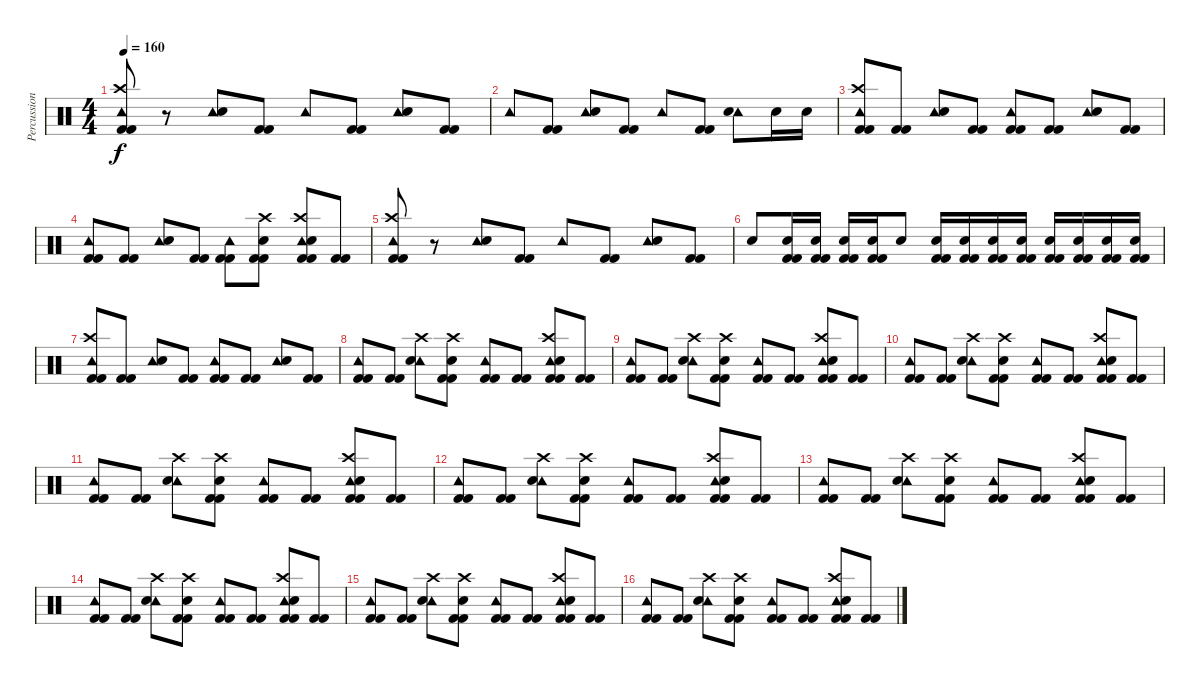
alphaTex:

\track ("Percussion" "Percussion") {instrument percussion}
\staff {score}
\articulation defaults
\ts (4 4)
\tempo 160
\clef neutral
\ks c
("Tambourine (hit)" "Crash high (hit)" "Kick (hit) 2" "Kick (hit) 2").8{dy f} r.8 ("Tambourine (hit)" "Electric Snare (hit)").8 ("Kick (hit) 2" "Kick (hit) 2").8 "Tambourine (hit)".8 ("Kick (hit) 2" "Kick (hit) 2").8 ("Tambourine (hit)" "Electric Snare (hit)").8 ("Kick (hit) 2" "Kick (hit) 2").8 |
"Tambourine (hit)".8 ("Kick (hit) 2" "Kick (hit) 2").8 ("Tambourine (hit)" "Electric Snare (hit)").8 ("Kick (hit) 2" "Kick (hit) 2").8 "Tambourine (hit)".8 ("Kick (hit) 2" "Kick (hit) 2").8 ("Tambourine (hit)" "Electric Snare (hit)").8 "Snare (hit) 2".16 "Snare (hit) 2".16 |
("Tambourine (hit)" "Crash high (hit)" "Kick (hit) 2" "Kick (hit) 2").8 ("Kick (hit) 2" "Kick (hit) 2").8 ("Tambourine (hit)" "Electric Snare (hit)").8 ("Kick (hit) 2" "Kick (hit) 2").8 ("Tambourine (hit)" "Kick (hit) 2" "Kick (hit) 2").8 ("Kick (hit) 2" "Kick (hit) 2").8 ("Tambourine (hit)" "Electric Snare (hit)").8 ("Kick (hit) 2" "Kick (hit) 2").8 |
("Tambourine (hit)" "Kick (hit) 2" "Kick (hit) 2").8 ("Kick (hit) 2" "Kick (hit) 2").8 ("Tambourine (hit)" "Electric Snare (hit)").8 ("Kick (hit) 2" "Kick (hit) 2").8 ("Tambourine (hit)" "Kick (hit) 2" "Kick (hit) 2").8 ("Crash high (hit)" "Electric Snare (hit)" "Kick (hit) 2" "Kick (hit) 2").8 ("Tambourine (hit)" "Crash high (hit)" "Electric Snare (hit)" "Kick (hit) 2" "Kick (hit) 2").8 ("Kick (hit) 2" "Kick (hit) 2").8 |
("Tambourine (hit)" "Crash high (hit)" "Kick (hit) 2" "Kick (hit) 2").8 r.8 ("Tambourine (hit)" "Electric Snare (hit)").8 ("Kick (hit) 2" "Kick (hit) 2").8 "Tambourine (hit)".8 ("Kick (hit) 2" "Kick (hit) 2").8 ("Tambourine (hit)" "Electric Snare (hit)").8 ("Kick (hit) 2" "Kick (hit) 2").8 |
"Electric Snare (hit)".8 ("Electric Snare (hit)" "Kick (hit) 2" "Kick (hit) 2").16 ("Electric Snare (hit)" "Kick (hit) 2" "Kick (hit) 2").16 ("Electric Snare (hit)" "Kick (hit) 2" "Kick (hit) 2").16 ("Electric Snare (hit)" "Kick (hit) 2" "Kick (hit) 2").16 "Electric Snare (hit)".8 ("Electric Snare (hit)" "Kick (hit) 2" "Kick (hit) 2").16 ("Electric Snare (hit)" "Kick (hit) 2" "Kick (hit) 2").16 ("Electric Snare (hit)" "Kick (hit) 2" "Kick (hit) 2").16 ("Electric Snare (hit)" "Kick (hit) 2" "Kick (hit) 2").16 ("Electric Snare (hit)" "Kick (hit) 2" "Kick (hit) 2").16 ("Electric Snare (hit)" "Kick (hit) 2" "Kick (hit) 2").16 ("Electric Snare (hit)" "Kick (hit) 2" "Kick (hit) 2").16 ("Electric Snare (hit)" "Kick (hit) 2" "Kick (hit) 2").16 |
("Tambourine (hit)" "Crash high (hit)" "Kick (hit) 2" "Kick (hit) 2").8 ("Kick (hit) 2" "Kick (hit) 2").8 ("Tambourine (hit)" "Electric Snare (hit)").8 ("Kick (hit) 2" "Kick (hit) 2").8 ("Tambourine (hit)" "Kick (hit) 2" "Kick (hit) 2").8 ("Kick (hit) 2" "Kick (hit) 2").8 ("Tambourine (hit)" "Electric Snare (hit)").8 ("Kick (hit) 2" "Kick (hit) 2").8 |
("Tambourine (hit)" "Kick (hit) 2" "Kick (hit) 2").8 ("Kick (hit) 2" "Kick (hit) 2").8 ("Tambourine (hit)" "Crash high (hit)" "Electric Snare (hit)").8 ("Crash high (hit)" "Electric Snare (hit)" "Kick (hit) 2" "Kick (hit) 2").8 ("Tambourine (hit)" "Kick (hit) 2" "Kick (hit) 2").8 ("Kick (hit) 2" "Kick (hit) 2").8 ("Tambourine (hit)" "Crash high (hit)" "Electric Snare (hit)" "Kick (hit) 2" "Kick (hit) 2").8 ("Kick (hit) 2" "Kick (hit) 2").8 |
("Tambourine (hit)" "Kick (hit) 2" "Kick (hit) 2").8 ("Kick (hit) 2" "Kick (hit) 2").8 ("Tambourine (hit)" "Crash high (hit)" "Electric Snare (hit)").8 ("Crash high (hit)" "Electric Snare (hit)" "Kick (hit) 2" "Kick (hit) 2").8 ("Tambourine (hit)" "Kick (hit) 2" "Kick (hit) 2").8 ("Kick (hit) 2" "Kick (hit) 2").8 ("Tambourine (hit)" "Crash high (hit)" "Electric Snare (hit)" "Kick (hit) 2" "Kick (hit) 2").8 ("Kick (hit) 2" "Kick (hit) 2").8 |
("Tambourine (hit)" "Kick (hit) 2" "Kick (hit) 2").8 ("Kick (hit) 2" "Kick (hit) 2").8 ("Tambourine (hit)" "Crash high (hit)" "Electric Snare (hit)").8 ("Crash high (hit)" "Electric Snare (hit)" "Kick (hit) 2" "Kick (hit) 2").8 ("Tambourine (hit)" "Kick (hit) 2" "Kick (hit) 2").8 ("Kick (hit) 2" "Kick (hit) 2").8 ("Tambourine (hit)" "Crash high (hit)" "Electric Snare (hit)" "Kick (hit) 2" "Kick (hit) 2").8 ("Kick (hit) 2" "Kick (hit) 2").8 |
("Tambourine (hit)" "Kick (hit) 2" "Kick (hit) 2").8 ("Kick (hit) 2" "Kick (hit) 2").8 ("Tambourine (hit)" "Crash high (hit)" "Electric Snare (hit)").8 ("Crash high (hit)" "Electric Snare (hit)" "Kick (hit) 2" "Kick (hit) 2").8 ("Tambourine (hit)" "Kick (hit) 2" "Kick (hit) 2").8 ("Kick (hit) 2" "Kick (hit) 2").8 ("Tambourine (hit)" "Crash high (hit)" "Electric Snare (hit)" "Kick (hit) 2" "Kick (hit) 2").8 ("Kick (hit) 2" "Kick (hit) 2").8 |
("Tambourine (hit)" "Kick (hit) 2" "Kick (hit) 2").8 ("Kick (hit) 2" "Kick (hit) 2").8 ("Tambourine (hit)" "Crash high (hit)" "Electric Snare (hit)").8 ("Crash high (hit)" "Electric Snare (hit)" "Kick (hit) 2" "Kick (hit) 2").8 ("Tambourine (hit)" "Kick (hit) 2" "Kick (hit) 2").8 ("Kick (hit) 2" "Kick (hit) 2").8 ("Tambourine (hit)" "Crash high (hit)" "Electric Snare (hit)" "Kick (hit) 2" "Kick (hit) 2").8 ("Kick (hit) 2" "Kick (hit) 2").8 |
("Tambourine (hit)" "Kick (hit) 2" "Kick (hit) 2").8 ("Kick (hit) 2" "Kick (hit) 2").8 ("Tambourine (hit)" "Crash high (hit)" "Electric Snare (hit)").8 ("Crash high (hit)" "Electric Snare (hit)" "Kick (hit) 2" "Kick (hit) 2").8 ("Tambourine (hit)" "Kick (hit) 2" "Kick (hit) 2").8 ("Kick (hit) 2" "Kick (hit) 2").8 ("Tambourine (hit)" "Crash high (hit)" "Electric Snare (hit)" "Kick (hit) 2" "Kick (hit) 2").8 ("Kick (hit) 2" "Kick (hit) 2").8 |
("Tambourine (hit)" "Kick (hit) 2" "Kick (hit) 2").8 ("Kick (hit) 2" "Kick (hit) 2").8 ("Tambourine (hit)" "Crash high (hit)" "Electric Snare (hit)").8 ("Crash high (hit)" "Electric Snare (hit)" "Kick (hit) 2" "Kick (hit) 2").8 ("Tambourine (hit)" "Kick (hit) 2" "Kick (hit) 2").8 ("Kick (hit) 2" "Kick (hit) 2").8 ("Tambourine (hit)" "Crash high (hit)" "Electric Snare (hit)" "Kick (hit) 2" "Kick (hit) 2").8 ("Kick (hit) 2" "Kick (hit) 2").8 |
("Tambourine (hit)" "Kick (hit) 2" "Kick (hit) 2").8 ("Kick (hit) 2" "Kick (hit) 2").8 ("Tambourine (hit)" "Crash high (hit)" "Electric Snare (hit)").8 ("Crash high (hit)" "Electric Snare (hit)" "Kick (hit) 2" "Kick (hit) 2").8 ("Tambourine (hit)" "Kick (hit) 2" "Kick (hit) 2").8 ("Kick (hit) 2" "Kick (hit) 2").8 ("Tambourine (hit)" "Crash high (hit)" "Electric Snare (hit)" "Kick (hit) 2" "Kick (hit) 2").8 ("Kick (hit) 2" "Kick (hit) 2").8 |
("Tambourine (hit)" "Kick (hit) 2" "Kick (hit) 2").8 ("Kick (hit) 2" "Kick (hit) 2").8 ("Tambourine (hit)" "Crash high (hit)" "Electric Snare (hit)").8 ("Crash high (hit)" "Electric Snare (hit)" "Kick (hit) 2" "Kick (hit) 2").8 ("Tambourine (hit)" "Kick (hit) 2" "Kick (hit) 2").8 ("Kick (hit) 2" "Kick (hit) 2").8 ("Tambourine (hit)" "Crash high (hit)" "Electric Snare (hit)" "Kick (hit) 2" "Kick (hit) 2").8 ("Kick (hit) 2" "Kick (hit) 2").8
